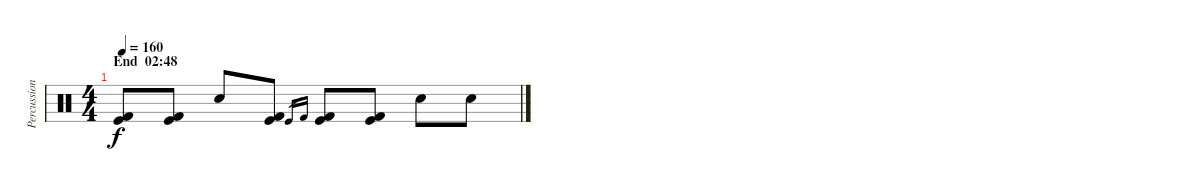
\track ("Percussion" "Percussion") {instrument percussion}
\staff {score}
\articulation defaults
\ts (4 4)
\section ("" "End  02:48")
\tempo 160
\clef neutral
\ks c
("Kick (hit)" "Kick (hit) 2").8{dy f} ("Kick (hit)" "Kick (hit) 2").8 "Electric Snare (hit)".8 ("Kick (hit)" "Kick (hit) 2").8 "Kick (hit)".16{gr} "Kick (hit) 2".16{gr} ("Kick (hit)" "Kick (hit) 2").8 ("Kick (hit)" "Kick (hit) 2").8 "Electric Snare (hit)".8 "Electric Snare (hit)".8
